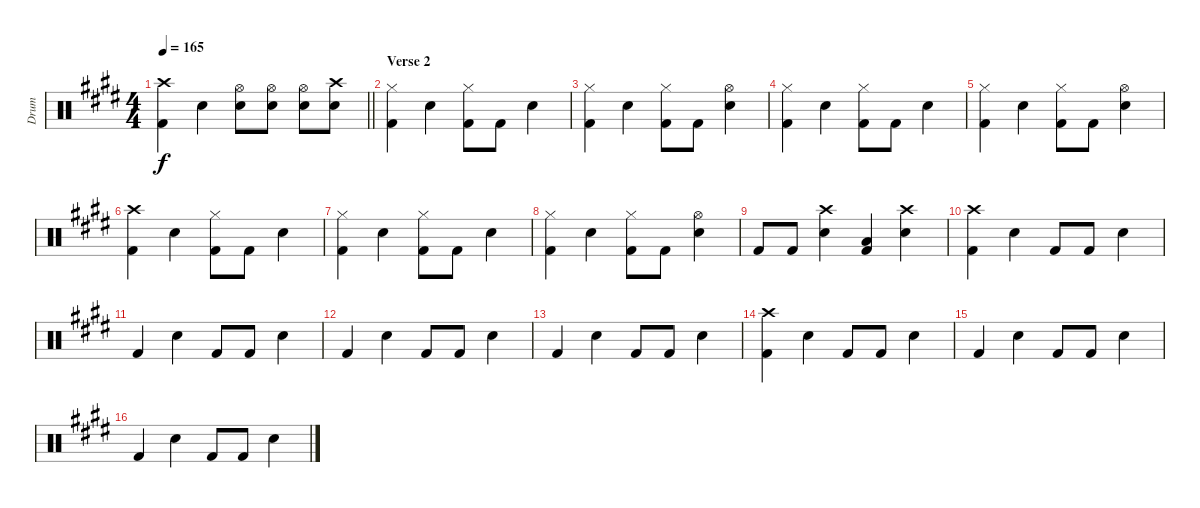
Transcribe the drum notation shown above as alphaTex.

\track ("Drum" "Drum") {instrument percussion}
\staff {score}
\articulation defaults
\ts (4 4)
\tempo 165
\clef neutral
\barLineRight lightlight
\ks e
("Crash high (hit)" "Kick (hit) 2").4{dy f} "Electric Snare (hit)".4 ("Hi-Hat (open)" "Electric Snare (hit)").8 ("Hi-Hat (open)" "Electric Snare (hit)").8 ("Hi-Hat (open)" "Electric Snare (hit)").8 ("Crash high (hit)" "Electric Snare (hit)").8 |
\section ("" "Verse 2")
("Hi-Hat (closed)" "Kick (hit) 2").4 "Electric Snare (hit)".4 ("Hi-Hat (closed)" "Kick (hit) 2").8 "Kick (hit) 2".8 "Electric Snare (hit)".4 |
("Hi-Hat (closed)" "Kick (hit) 2").4 "Electric Snare (hit)".4 ("Hi-Hat (closed)" "Kick (hit) 2").8 "Kick (hit) 2".8 ("Hi-Hat (open)" "Electric Snare (hit)").4 |
("Hi-Hat (closed)" "Kick (hit) 2").4 "Electric Snare (hit)".4 ("Hi-Hat (closed)" "Kick (hit) 2").8 "Kick (hit) 2".8 "Electric Snare (hit)".4 |
("Hi-Hat (closed)" "Kick (hit) 2").4 "Electric Snare (hit)".4 ("Hi-Hat (closed)" "Kick (hit) 2").8 "Kick (hit) 2".8 ("Hi-Hat (open)" "Electric Snare (hit)").4 |
("Crash high (hit)" "Kick (hit) 2").4 "Electric Snare (hit)".4 ("Hi-Hat (closed)" "Kick (hit) 2").8 "Kick (hit) 2".8 "Electric Snare (hit)".4 |
("Hi-Hat (closed)" "Kick (hit) 2").4 "Electric Snare (hit)".4 ("Hi-Hat (closed)" "Kick (hit) 2").8 "Kick (hit) 2".8 "Electric Snare (hit)".4 |
("Hi-Hat (closed)" "Kick (hit) 2").4 "Electric Snare (hit)".4 ("Hi-Hat (closed)" "Kick (hit) 2").8 "Kick (hit) 2".8 ("Hi-Hat (open)" "Electric Snare (hit)").4 |
"Kick (hit) 2".8 "Kick (hit) 2".8 ("Crash high (hit)" "Electric Snare (hit)").4 ("Low Floor Tom (hit)" "Kick (hit) 2").4 ("Crash high (hit)" "Electric Snare (hit)").4 |
("Crash high (hit)" "Kick (hit) 2").4 "Electric Snare (hit)".4 "Kick (hit) 2".8 "Kick (hit) 2".8 "Electric Snare (hit)".4 |
"Kick (hit) 2".4 "Electric Snare (hit)".4 "Kick (hit) 2".8 "Kick (hit) 2".8 "Electric Snare (hit)".4 |
"Kick (hit) 2".4 "Electric Snare (hit)".4 "Kick (hit) 2".8 "Kick (hit) 2".8 "Electric Snare (hit)".4 |
"Kick (hit) 2".4 "Electric Snare (hit)".4 "Kick (hit) 2".8 "Kick (hit) 2".8 "Electric Snare (hit)".4 |
("Crash high (hit)" "Kick (hit) 2").4 "Electric Snare (hit)".4 "Kick (hit) 2".8 "Kick (hit) 2".8 "Electric Snare (hit)".4 |
"Kick (hit) 2".4 "Electric Snare (hit)".4 "Kick (hit) 2".8 "Kick (hit) 2".8 "Electric Snare (hit)".4 |
"Kick (hit) 2".4 "Electric Snare (hit)".4 "Kick (hit) 2".8 "Kick (hit) 2".8 "Electric Snare (hit)".4
